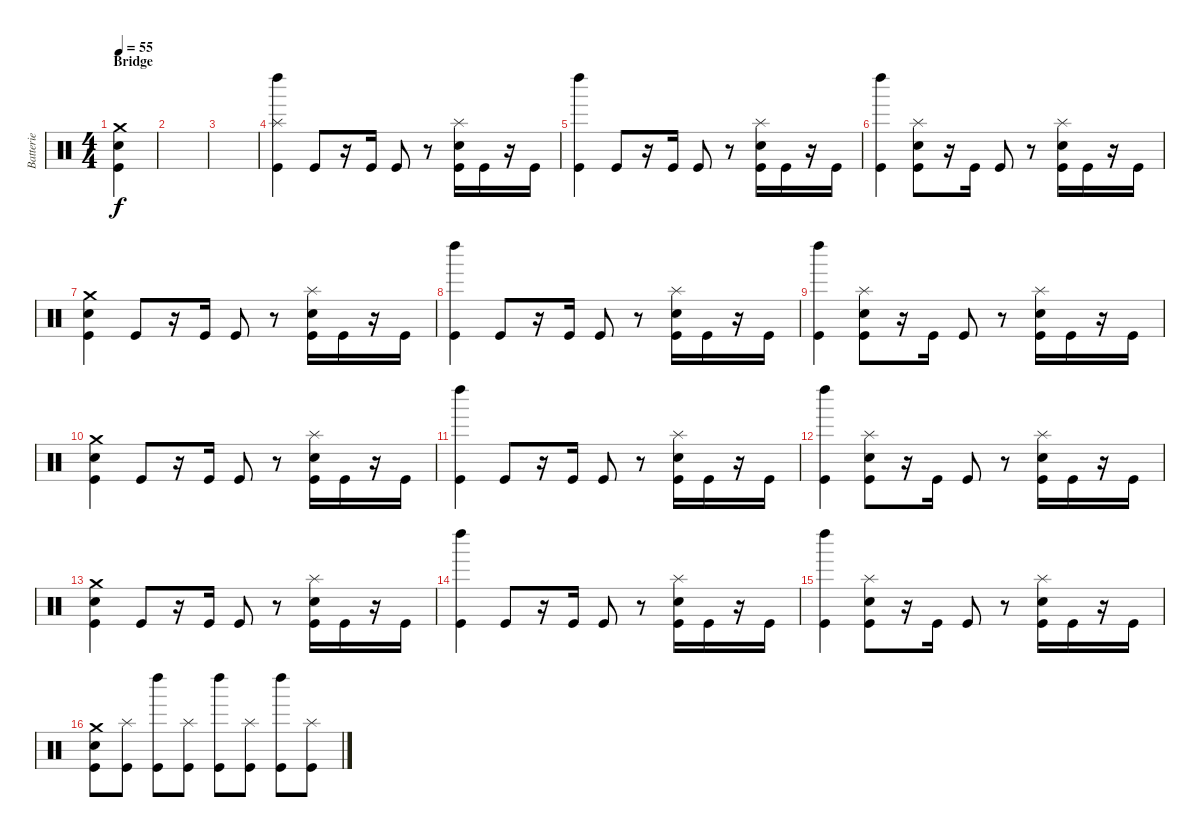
\track ("Batterie" "Batterie") {instrument percussion}
\staff {score}
\articulation defaults
\ts (4 4)
\section ("" "Bridge")
\tempo 55
\clef neutral
\ks c
("Kick (hit)" "Electric Snare (hit)" "Crash medium (hit)").4{dy f} |
|
|
("Kick (hit)" "Left Maraca (hit)" "Splash (hit)").4 "Kick (hit)".8 r.16 "Kick (hit)".16 "Kick (hit)".8 r.8 ("Kick (hit)" "Electric Snare (hit)" "Splash (hit)").16 "Kick (hit)".16 r.16 "Kick (hit)".16 |
("Kick (hit)" "Left Maraca (hit)").4 "Kick (hit)".8 r.16 "Kick (hit)".16 "Kick (hit)".8 r.8 ("Kick (hit)" "Electric Snare (hit)" "Splash (hit)").16 "Kick (hit)".16 r.16 "Kick (hit)".16 |
("Kick (hit)" "Left Maraca (hit)").4 ("Kick (hit)" "Electric Snare (hit)" "Splash (hit)").8 r.16 "Kick (hit)".16 "Kick (hit)".8 r.8 ("Kick (hit)" "Electric Snare (hit)" "Splash (hit)").16 "Kick (hit)".16 r.16 "Kick (hit)".16 |
("Kick (hit)" "Electric Snare (hit)" "Crash medium (hit)").4 "Kick (hit)".8 r.16 "Kick (hit)".16 "Kick (hit)".8 r.8 ("Kick (hit)" "Electric Snare (hit)" "Splash (hit)").16 "Kick (hit)".16 r.16 "Kick (hit)".16 |
("Kick (hit)" "Left Maraca (hit)").4 "Kick (hit)".8 r.16 "Kick (hit)".16 "Kick (hit)".8 r.8 ("Kick (hit)" "Electric Snare (hit)" "Splash (hit)").16 "Kick (hit)".16 r.16 "Kick (hit)".16 |
("Kick (hit)" "Left Maraca (hit)").4 ("Kick (hit)" "Electric Snare (hit)" "Splash (hit)").8 r.16 "Kick (hit)".16 "Kick (hit)".8 r.8 ("Kick (hit)" "Electric Snare (hit)" "Splash (hit)").16 "Kick (hit)".16 r.16 "Kick (hit)".16 |
("Kick (hit)" "Electric Snare (hit)" "Crash medium (hit)").4 "Kick (hit)".8 r.16 "Kick (hit)".16 "Kick (hit)".8 r.8 ("Kick (hit)" "Electric Snare (hit)" "Splash (hit)").16 "Kick (hit)".16 r.16 "Kick (hit)".16 |
("Kick (hit)" "Left Maraca (hit)").4 "Kick (hit)".8 r.16 "Kick (hit)".16 "Kick (hit)".8 r.8 ("Kick (hit)" "Electric Snare (hit)" "Splash (hit)").16 "Kick (hit)".16 r.16 "Kick (hit)".16 |
("Kick (hit)" "Left Maraca (hit)").4 ("Kick (hit)" "Electric Snare (hit)" "Splash (hit)").8 r.16 "Kick (hit)".16 "Kick (hit)".8 r.8 ("Kick (hit)" "Electric Snare (hit)" "Splash (hit)").16 "Kick (hit)".16 r.16 "Kick (hit)".16 |
("Kick (hit)" "Electric Snare (hit)" "Crash medium (hit)").4 "Kick (hit)".8 r.16 "Kick (hit)".16 "Kick (hit)".8 r.8 ("Kick (hit)" "Electric Snare (hit)" "Splash (hit)").16 "Kick (hit)".16 r.16 "Kick (hit)".16 |
("Kick (hit)" "Left Maraca (hit)").4 "Kick (hit)".8 r.16 "Kick (hit)".16 "Kick (hit)".8 r.8 ("Kick (hit)" "Electric Snare (hit)" "Splash (hit)").16 "Kick (hit)".16 r.16 "Kick (hit)".16 |
("Kick (hit)" "Left Maraca (hit)").4 ("Kick (hit)" "Electric Snare (hit)" "Splash (hit)").8 r.16 "Kick (hit)".16 "Kick (hit)".8 r.8 ("Kick (hit)" "Electric Snare (hit)" "Splash (hit)").16 "Kick (hit)".16 r.16 "Kick (hit)".16 |
("Kick (hit)" "Electric Snare (hit)" "Crash medium (hit)").8 ("Kick (hit)" "Splash (hit)").8 ("Kick (hit)" "Left Maraca (hit)").8 ("Kick (hit)" "Splash (hit)").8 ("Kick (hit)" "Left Maraca (hit)").8 ("Kick (hit)" "Splash (hit)").8 ("Kick (hit)" "Left Maraca (hit)").8 ("Kick (hit)" "Splash (hit)").8
